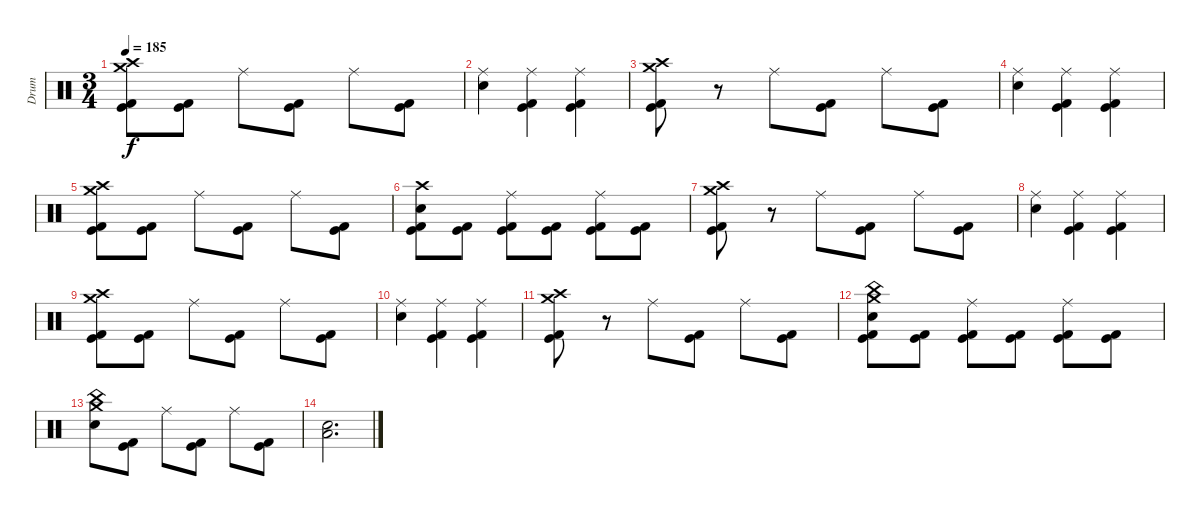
\track ("Drum" "Drum") {instrument percussion}
\staff {score}
\articulation defaults
\ts (3 4)
\tempo 185
\clef neutral
\ks c
("Crash medium (hit)" "Crash high (hit)" "Kick (hit)" "Kick (hit) 2").8{dy f} ("Kick (hit)" "Kick (hit) 2").8 "Ride (middle)".8 ("Kick (hit)" "Kick (hit) 2").8 "Ride (middle)".8 ("Kick (hit)" "Kick (hit) 2").8 |
("Ride (middle)" "Electric Snare (hit)").4 ("Ride (middle)" "Kick (hit)" "Kick (hit) 2").4 ("Ride (middle)" "Kick (hit)" "Kick (hit) 2").4 |
("Crash medium (hit)" "Crash high (hit)" "Kick (hit)" "Kick (hit) 2").8 r.8 "Ride (middle)".8 ("Kick (hit)" "Kick (hit) 2").8 "Ride (middle)".8 ("Kick (hit)" "Kick (hit) 2").8 |
("Ride (middle)" "Electric Snare (hit)").4 ("Ride (middle)" "Kick (hit)" "Kick (hit) 2").4 ("Ride (middle)" "Kick (hit)" "Kick (hit) 2").4 |
("Crash medium (hit)" "Crash high (hit)" "Kick (hit)" "Kick (hit) 2").8 ("Kick (hit)" "Kick (hit) 2").8 "Ride (middle)".8 ("Kick (hit)" "Kick (hit) 2").8 "Ride (middle)".8 ("Kick (hit)" "Kick (hit) 2").8 |
("Crash high (hit)" "Electric Snare (hit)" "Kick (hit)" "Kick (hit) 2").8 ("Kick (hit)" "Kick (hit) 2").8 ("Ride (middle)" "Kick (hit)" "Kick (hit) 2").8 ("Kick (hit)" "Kick (hit) 2").8 ("Ride (middle)" "Kick (hit)" "Kick (hit) 2").8 ("Kick (hit)" "Kick (hit) 2").8 |
("Crash medium (hit)" "Crash high (hit)" "Kick (hit)" "Kick (hit) 2").8 r.8 "Ride (middle)".8 ("Kick (hit)" "Kick (hit) 2").8 "Ride (middle)".8 ("Kick (hit)" "Kick (hit) 2").8 |
("Ride (middle)" "Electric Snare (hit)").4 ("Ride (middle)" "Kick (hit)" "Kick (hit) 2").4 ("Ride (middle)" "Kick (hit)" "Kick (hit) 2").4 |
("Crash medium (hit)" "Crash high (hit)" "Kick (hit)" "Kick (hit) 2").8 ("Kick (hit)" "Kick (hit) 2").8 "Ride (middle)".8 ("Kick (hit)" "Kick (hit) 2").8 "Ride (middle)".8 ("Kick (hit)" "Kick (hit) 2").8 |
("Ride (middle)" "Electric Snare (hit)").4 ("Ride (middle)" "Kick (hit)" "Kick (hit) 2").4 ("Ride (middle)" "Kick (hit)" "Kick (hit) 2").4 |
("Crash medium (hit)" "Crash high (hit)" "Kick (hit)" "Kick (hit) 2").8 r.8 "Ride (middle)".8 ("Kick (hit)" "Kick (hit) 2").8 "Ride (middle)".8 ("Kick (hit)" "Kick (hit) 2").8 |
("Crash medium (hit)" "China (hit)" "Electric Snare (hit)" "Kick (hit)" "Kick (hit) 2").8 ("Kick (hit)" "Kick (hit) 2").8 ("Ride (middle)" "Kick (hit)" "Kick (hit) 2").8 ("Kick (hit)" "Kick (hit) 2").8 ("Ride (middle)" "Kick (hit)" "Kick (hit) 2").8 ("Kick (hit)" "Kick (hit) 2").8 |
("Crash medium (hit)" "China (hit)" "Electric Snare (hit)").8 ("Kick (hit)" "Kick (hit) 2").8 "Ride (middle)".8 ("Kick (hit)" "Kick (hit) 2").8 "Ride (middle)".8 ("Kick (hit)" "Kick (hit) 2").8 |
("Low Floor Tom (hit)" "Electric Snare (hit)").2{d}
